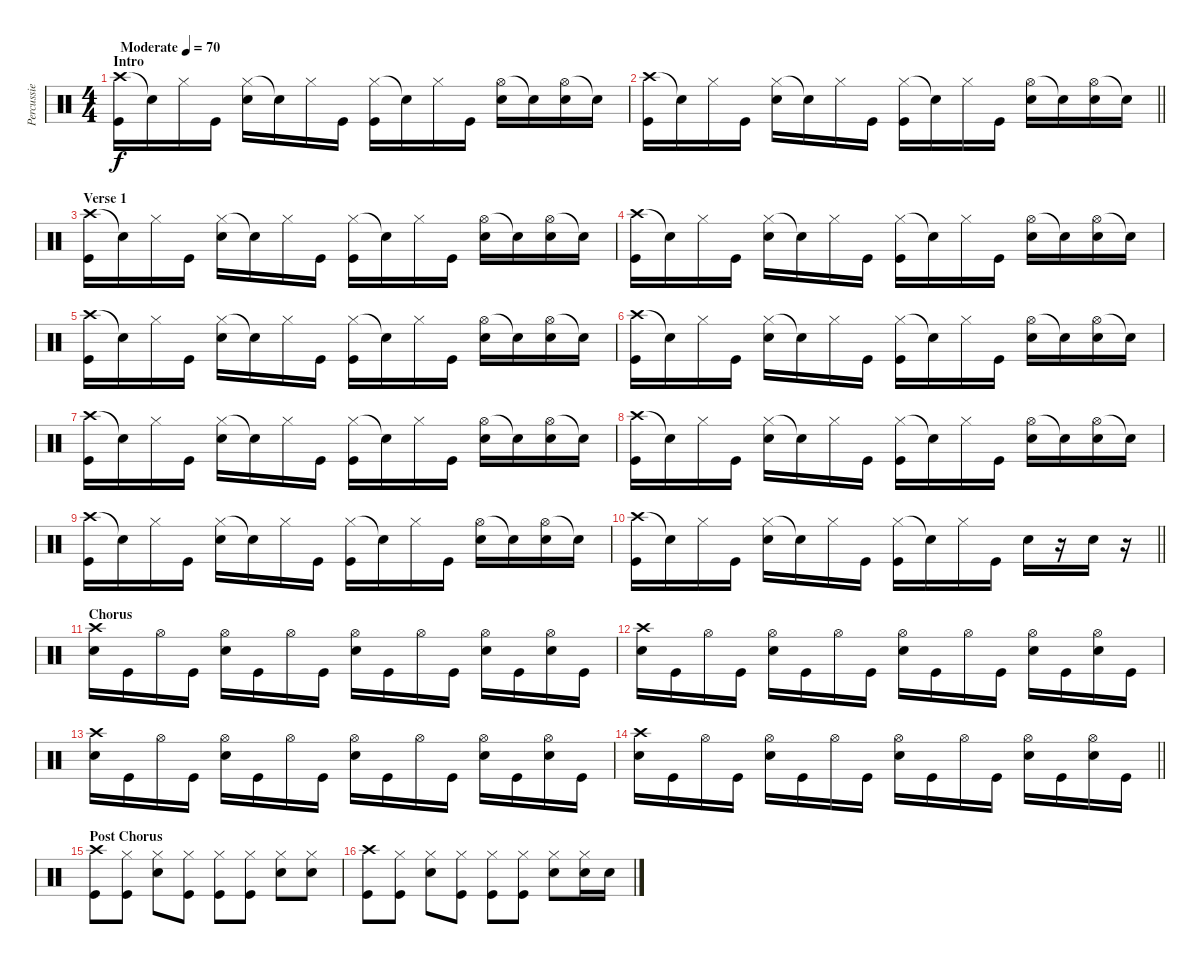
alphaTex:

\track ("Percussie" "Percussie") {instrument percussion}
\staff {score}
\articulation defaults
\ts (4 4)
\section ("" "Intro")
\tempo (70 "Moderate")
\clef neutral
\ks c
("Crash high (hit)" "Kick (hit)").16{dy f} "Snare (hit)"{t}.16 "Hi-Hat (closed)".16 "Kick (hit)".16 ("Hi-Hat (closed)" "Snare (hit) 2").16 "Snare (hit)"{t}.16 "Hi-Hat (closed)".16 "Kick (hit)".16 ("Hi-Hat (closed)" "Kick (hit)").16 "Snare (hit)"{t}.16 "Hi-Hat (closed)".16 "Kick (hit)".16 ("Hi-Hat (open)" "Snare (hit) 2").16 "Snare (hit)"{t}.16 ("Hi-Hat (open)" "Snare (hit) 2").16 "Snare (hit)"{t}.16 |
\barLineRight lightlight
("Crash high (hit)" "Kick (hit)").16 "Snare (hit)"{t}.16 "Hi-Hat (closed)".16 "Kick (hit)".16 ("Hi-Hat (closed)" "Snare (hit) 2").16 "Snare (hit)"{t}.16 "Hi-Hat (closed)".16 "Kick (hit)".16 ("Hi-Hat (closed)" "Kick (hit)").16 "Snare (hit)"{t}.16 "Hi-Hat (closed)".16 "Kick (hit)".16 ("Hi-Hat (open)" "Snare (hit) 2").16 "Snare (hit)"{t}.16 ("Hi-Hat (open)" "Snare (hit) 2").16 "Snare (hit)"{t}.16 |
\section ("" "Verse 1")
("Crash high (hit)" "Kick (hit)").16 "Snare (hit)"{t}.16 "Hi-Hat (closed)".16 "Kick (hit)".16 ("Hi-Hat (closed)" "Snare (hit) 2").16 "Snare (hit)"{t}.16 "Hi-Hat (closed)".16 "Kick (hit)".16 ("Hi-Hat (closed)" "Kick (hit)").16 "Snare (hit)"{t}.16 "Hi-Hat (closed)".16 "Kick (hit)".16 ("Hi-Hat (open)" "Snare (hit) 2").16 "Snare (hit)"{t}.16 ("Hi-Hat (open)" "Snare (hit) 2").16 "Snare (hit)"{t}.16 |
("Crash high (hit)" "Kick (hit)").16 "Snare (hit)"{t}.16 "Hi-Hat (closed)".16 "Kick (hit)".16 ("Hi-Hat (closed)" "Snare (hit) 2").16 "Snare (hit)"{t}.16 "Hi-Hat (closed)".16 "Kick (hit)".16 ("Hi-Hat (closed)" "Kick (hit)").16 "Snare (hit)"{t}.16 "Hi-Hat (closed)".16 "Kick (hit)".16 ("Hi-Hat (open)" "Snare (hit) 2").16 "Snare (hit)"{t}.16 ("Hi-Hat (open)" "Snare (hit) 2").16 "Snare (hit)"{t}.16 |
("Crash high (hit)" "Kick (hit)").16 "Snare (hit)"{t}.16 "Hi-Hat (closed)".16 "Kick (hit)".16 ("Hi-Hat (closed)" "Snare (hit) 2").16 "Snare (hit)"{t}.16 "Hi-Hat (closed)".16 "Kick (hit)".16 ("Hi-Hat (closed)" "Kick (hit)").16 "Snare (hit)"{t}.16 "Hi-Hat (closed)".16 "Kick (hit)".16 ("Hi-Hat (open)" "Snare (hit) 2").16 "Snare (hit)"{t}.16 ("Hi-Hat (open)" "Snare (hit) 2").16 "Snare (hit)"{t}.16 |
("Crash high (hit)" "Kick (hit)").16 "Snare (hit)"{t}.16 "Hi-Hat (closed)".16 "Kick (hit)".16 ("Hi-Hat (closed)" "Snare (hit) 2").16 "Snare (hit)"{t}.16 "Hi-Hat (closed)".16 "Kick (hit)".16 ("Hi-Hat (closed)" "Kick (hit)").16 "Snare (hit)"{t}.16 "Hi-Hat (closed)".16 "Kick (hit)".16 ("Hi-Hat (open)" "Snare (hit) 2").16 "Snare (hit)"{t}.16 ("Hi-Hat (open)" "Snare (hit) 2").16 "Snare (hit)"{t}.16 |
("Crash high (hit)" "Kick (hit)").16 "Snare (hit)"{t}.16 "Hi-Hat (closed)".16 "Kick (hit)".16 ("Hi-Hat (closed)" "Snare (hit) 2").16 "Snare (hit)"{t}.16 "Hi-Hat (closed)".16 "Kick (hit)".16 ("Hi-Hat (closed)" "Kick (hit)").16 "Snare (hit)"{t}.16 "Hi-Hat (closed)".16 "Kick (hit)".16 ("Hi-Hat (open)" "Snare (hit) 2").16 "Snare (hit)"{t}.16 ("Hi-Hat (open)" "Snare (hit) 2").16 "Snare (hit)"{t}.16 |
("Crash high (hit)" "Kick (hit)").16 "Snare (hit)"{t}.16 "Hi-Hat (closed)".16 "Kick (hit)".16 ("Hi-Hat (closed)" "Snare (hit) 2").16 "Snare (hit)"{t}.16 "Hi-Hat (closed)".16 "Kick (hit)".16 ("Hi-Hat (closed)" "Kick (hit)").16 "Snare (hit)"{t}.16 "Hi-Hat (closed)".16 "Kick (hit)".16 ("Hi-Hat (open)" "Snare (hit) 2").16 "Snare (hit)"{t}.16 ("Hi-Hat (open)" "Snare (hit) 2").16 "Snare (hit)"{t}.16 |
("Crash high (hit)" "Kick (hit)").16 "Snare (hit)"{t}.16 "Hi-Hat (closed)".16 "Kick (hit)".16 ("Hi-Hat (closed)" "Snare (hit) 2").16 "Snare (hit)"{t}.16 "Hi-Hat (closed)".16 "Kick (hit)".16 ("Hi-Hat (closed)" "Kick (hit)").16 "Snare (hit)"{t}.16 "Hi-Hat (closed)".16 "Kick (hit)".16 ("Hi-Hat (open)" "Snare (hit) 2").16 "Snare (hit)"{t}.16 ("Hi-Hat (open)" "Snare (hit) 2").16 "Snare (hit)"{t}.16 |
\barLineRight lightlight
("Crash high (hit)" "Kick (hit)").16 "Snare (hit)"{t}.16 "Hi-Hat (closed)".16 "Kick (hit)".16 ("Hi-Hat (closed)" "Snare (hit) 2").16 "Snare (hit)"{t}.16 "Hi-Hat (closed)".16 "Kick (hit)".16 ("Hi-Hat (closed)" "Kick (hit)").16 "Snare (hit)"{t}.16 "Hi-Hat (closed)".16 "Kick (hit)".16 "Snare (hit) 2".16 r.16 "Snare (hit) 2".16 r.16 |
\section ("" "Chorus")
("Crash high (hit)" "Snare (hit) 2").16 "Kick (hit)".16 "Hi-Hat (open)".16 "Kick (hit)".16 ("Hi-Hat (open)" "Snare (hit) 2").16 "Kick (hit)".16 "Hi-Hat (open)".16 "Kick (hit)".16 ("Hi-Hat (open)" "Snare (hit) 2").16 "Kick (hit)".16 "Hi-Hat (open)".16 "Kick (hit)".16 ("Hi-Hat (open)" "Snare (hit) 2").16 "Kick (hit)".16 ("Hi-Hat (open)" "Snare (hit) 2").16 "Kick (hit)".16 |
("Crash high (hit)" "Snare (hit) 2").16 "Kick (hit)".16 "Hi-Hat (open)".16 "Kick (hit)".16 ("Hi-Hat (open)" "Snare (hit) 2").16 "Kick (hit)".16 "Hi-Hat (open)".16 "Kick (hit)".16 ("Hi-Hat (open)" "Snare (hit) 2").16 "Kick (hit)".16 "Hi-Hat (open)".16 "Kick (hit)".16 ("Hi-Hat (open)" "Snare (hit) 2").16 "Kick (hit)".16 ("Hi-Hat (open)" "Snare (hit) 2").16 "Kick (hit)".16 |
("Crash high (hit)" "Snare (hit) 2").16 "Kick (hit)".16 "Hi-Hat (open)".16 "Kick (hit)".16 ("Hi-Hat (open)" "Snare (hit) 2").16 "Kick (hit)".16 "Hi-Hat (open)".16 "Kick (hit)".16 ("Hi-Hat (open)" "Snare (hit) 2").16 "Kick (hit)".16 "Hi-Hat (open)".16 "Kick (hit)".16 ("Hi-Hat (open)" "Snare (hit) 2").16 "Kick (hit)".16 ("Hi-Hat (open)" "Snare (hit) 2").16 "Kick (hit)".16 |
\barLineRight lightlight
("Crash high (hit)" "Snare (hit) 2").16 "Kick (hit)".16 "Hi-Hat (open)".16 "Kick (hit)".16 ("Hi-Hat (open)" "Snare (hit) 2").16 "Kick (hit)".16 "Hi-Hat (open)".16 "Kick (hit)".16 ("Hi-Hat (open)" "Snare (hit) 2").16 "Kick (hit)".16 "Hi-Hat (open)".16 "Kick (hit)".16 ("Hi-Hat (open)" "Snare (hit) 2").16 "Kick (hit)".16 ("Hi-Hat (open)" "Snare (hit) 2").16 "Kick (hit)".16 |
\section ("" "Post Chorus")
("Crash high (hit)" "Kick (hit)").8 ("Hi-Hat (closed)" "Kick (hit)").8 ("Hi-Hat (closed)" "Snare (hit) 2").8 ("Hi-Hat (closed)" "Kick (hit)").8 ("Hi-Hat (closed)" "Kick (hit)").8 ("Hi-Hat (closed)" "Kick (hit)").8 ("Hi-Hat (closed)" "Snare (hit) 2").8 ("Hi-Hat (closed)" "Snare (hit) 2").8 |
("Crash high (hit)" "Kick (hit)").8 ("Hi-Hat (closed)" "Kick (hit)").8 ("Hi-Hat (closed)" "Snare (hit) 2").8 ("Hi-Hat (closed)" "Kick (hit)").8 ("Hi-Hat (closed)" "Kick (hit)").8 ("Hi-Hat (closed)" "Kick (hit)").8 ("Hi-Hat (closed)" "Snare (hit) 2").8 ("Hi-Hat (closed)" "Snare (hit) 2").16 "Snare (hit) 2".16
